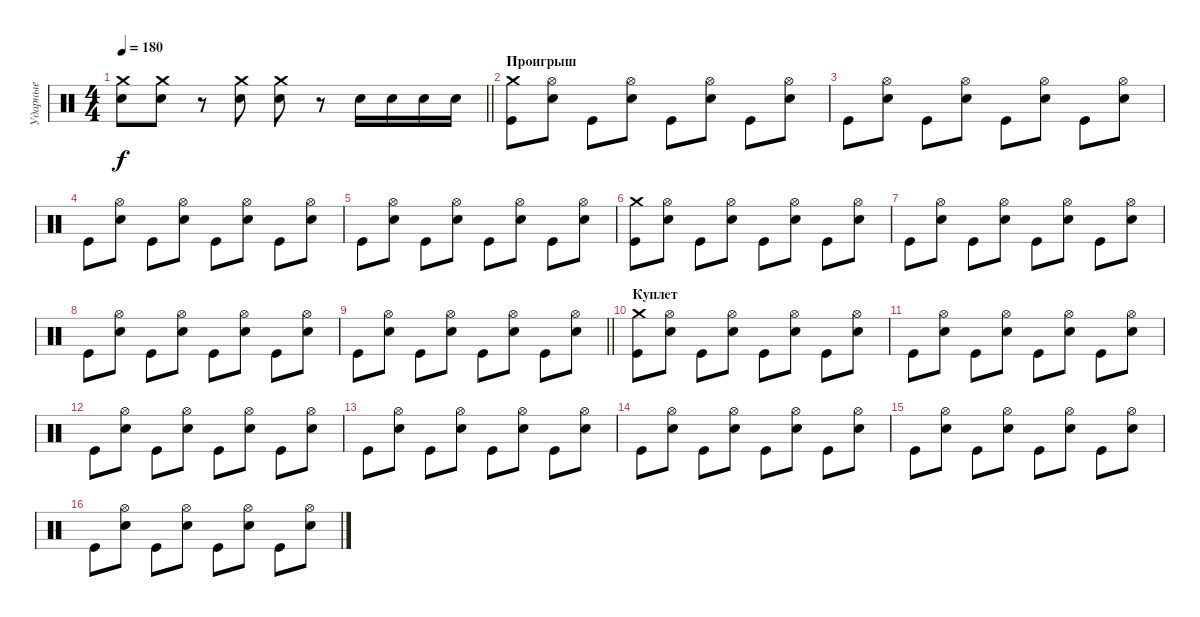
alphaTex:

\track ("Ударные" "Ударные") {instrument percussion}
\staff {score}
\articulation defaults
\ts (4 4)
\tempo 180
\clef neutral
\barLineRight lightlight
\ks c
("Crash medium (hit)" "Electric Snare (hit)").8{dy f} ("Crash medium (hit)" "Electric Snare (hit)").8 r.8 ("Crash medium (hit)" "Electric Snare (hit)").8 ("Crash medium (hit)" "Electric Snare (hit)").8 r.8 "Electric Snare (hit)".16 "Electric Snare (hit)".16 "Electric Snare (hit)".16 "Electric Snare (hit)".16 |
\section ("" "Проигрыш")
("Crash medium (hit)" "Kick (hit)").8 ("Hi-Hat (open)" "Electric Snare (hit)").8 "Kick (hit)".8 ("Hi-Hat (open)" "Electric Snare (hit)").8 "Kick (hit)".8 ("Hi-Hat (open)" "Electric Snare (hit)").8 "Kick (hit)".8 ("Hi-Hat (open)" "Electric Snare (hit)").8 |
"Kick (hit)".8 ("Hi-Hat (open)" "Electric Snare (hit)").8 "Kick (hit)".8 ("Hi-Hat (open)" "Electric Snare (hit)").8 "Kick (hit)".8 ("Hi-Hat (open)" "Electric Snare (hit)").8 "Kick (hit)".8 ("Hi-Hat (open)" "Electric Snare (hit)").8 |
"Kick (hit)".8 ("Hi-Hat (open)" "Electric Snare (hit)").8 "Kick (hit)".8 ("Hi-Hat (open)" "Electric Snare (hit)").8 "Kick (hit)".8 ("Hi-Hat (open)" "Electric Snare (hit)").8 "Kick (hit)".8 ("Hi-Hat (open)" "Electric Snare (hit)").8 |
"Kick (hit)".8 ("Hi-Hat (open)" "Electric Snare (hit)").8 "Kick (hit)".8 ("Hi-Hat (open)" "Electric Snare (hit)").8 "Kick (hit)".8 ("Hi-Hat (open)" "Electric Snare (hit)").8 "Kick (hit)".8 ("Hi-Hat (open)" "Electric Snare (hit)").8 |
("Crash medium (hit)" "Kick (hit)").8 ("Hi-Hat (open)" "Electric Snare (hit)").8 "Kick (hit)".8 ("Hi-Hat (open)" "Electric Snare (hit)").8 "Kick (hit)".8 ("Hi-Hat (open)" "Electric Snare (hit)").8 "Kick (hit)".8 ("Hi-Hat (open)" "Electric Snare (hit)").8 |
"Kick (hit)".8 ("Hi-Hat (open)" "Electric Snare (hit)").8 "Kick (hit)".8 ("Hi-Hat (open)" "Electric Snare (hit)").8 "Kick (hit)".8 ("Hi-Hat (open)" "Electric Snare (hit)").8 "Kick (hit)".8 ("Hi-Hat (open)" "Electric Snare (hit)").8 |
"Kick (hit)".8 ("Hi-Hat (open)" "Electric Snare (hit)").8 "Kick (hit)".8 ("Hi-Hat (open)" "Electric Snare (hit)").8 "Kick (hit)".8 ("Hi-Hat (open)" "Electric Snare (hit)").8 "Kick (hit)".8 ("Hi-Hat (open)" "Electric Snare (hit)").8 |
\barLineRight lightlight "Kick (hit)".8
("Hi-Hat (open)" "Electric Snare (hit)").8 "Kick (hit)".8 ("Hi-Hat (open)" "Electric Snare (hit)").8 "Kick (hit)".8 ("Hi-Hat (open)" "Electric Snare (hit)").8 "Kick (hit)".8 ("Hi-Hat (open)" "Electric Snare (hit)").8 |
\section ("" "Куплет")
("Crash medium (hit)" "Kick (hit)").8 ("Hi-Hat (open)" "Electric Snare (hit)").8 "Kick (hit)".8 ("Hi-Hat (open)" "Electric Snare (hit)").8 "Kick (hit)".8 ("Hi-Hat (open)" "Electric Snare (hit)").8 "Kick (hit)".8 ("Hi-Hat (open)" "Electric Snare (hit)").8 |
"Kick (hit)".8 ("Hi-Hat (open)" "Electric Snare (hit)").8 "Kick (hit)".8 ("Hi-Hat (open)" "Electric Snare (hit)").8 "Kick (hit)".8 ("Hi-Hat (open)" "Electric Snare (hit)").8 "Kick (hit)".8 ("Hi-Hat (open)" "Electric Snare (hit)").8 |
"Kick (hit)".8 ("Hi-Hat (open)" "Electric Snare (hit)").8 "Kick (hit)".8 ("Hi-Hat (open)" "Electric Snare (hit)").8 "Kick (hit)".8 ("Hi-Hat (open)" "Electric Snare (hit)").8 "Kick (hit)".8 ("Hi-Hat (open)" "Electric Snare (hit)").8 |
"Kick (hit)".8 ("Hi-Hat (open)" "Electric Snare (hit)").8 "Kick (hit)".8 ("Hi-Hat (open)" "Electric Snare (hit)").8 "Kick (hit)".8 ("Hi-Hat (open)" "Electric Snare (hit)").8 "Kick (hit)".8 ("Hi-Hat (open)" "Electric Snare (hit)").8 |
"Kick (hit)".8 ("Hi-Hat (open)" "Electric Snare (hit)").8 "Kick (hit)".8 ("Hi-Hat (open)" "Electric Snare (hit)").8 "Kick (hit)".8 ("Hi-Hat (open)" "Electric Snare (hit)").8 "Kick (hit)".8 ("Hi-Hat (open)" "Electric Snare (hit)").8 |
"Kick (hit)".8 ("Hi-Hat (open)" "Electric Snare (hit)").8 "Kick (hit)".8 ("Hi-Hat (open)" "Electric Snare (hit)").8 "Kick (hit)".8 ("Hi-Hat (open)" "Electric Snare (hit)").8 "Kick (hit)".8 ("Hi-Hat (open)" "Electric Snare (hit)").8 |
"Kick (hit)".8 ("Hi-Hat (open)" "Electric Snare (hit)").8 "Kick (hit)".8 ("Hi-Hat (open)" "Electric Snare (hit)").8 "Kick (hit)".8 ("Hi-Hat (open)" "Electric Snare (hit)").8 "Kick (hit)".8 ("Hi-Hat (open)" "Electric Snare (hit)").8
